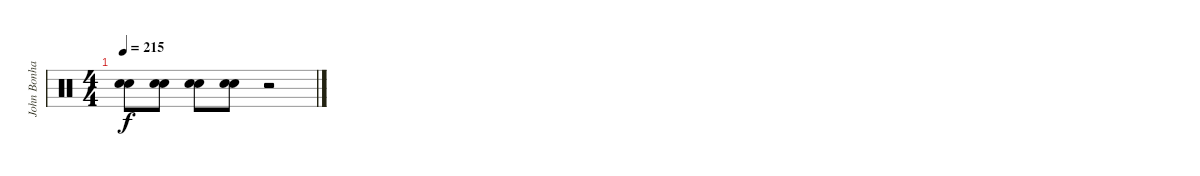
\track ("John Bonham" "John Bonha") {instrument percussion}
\staff {score}
\articulation defaults
\ts (4 4)
\tempo 215
\clef neutral
\ks c
("Snare (hit) 2" "Electric Snare (hit)").8{dy f} ("Snare (hit) 2" "Electric Snare (hit)").8 ("Snare (hit) 2" "Electric Snare (hit)").8 ("Snare (hit) 2" "Electric Snare (hit)").8 r.2
